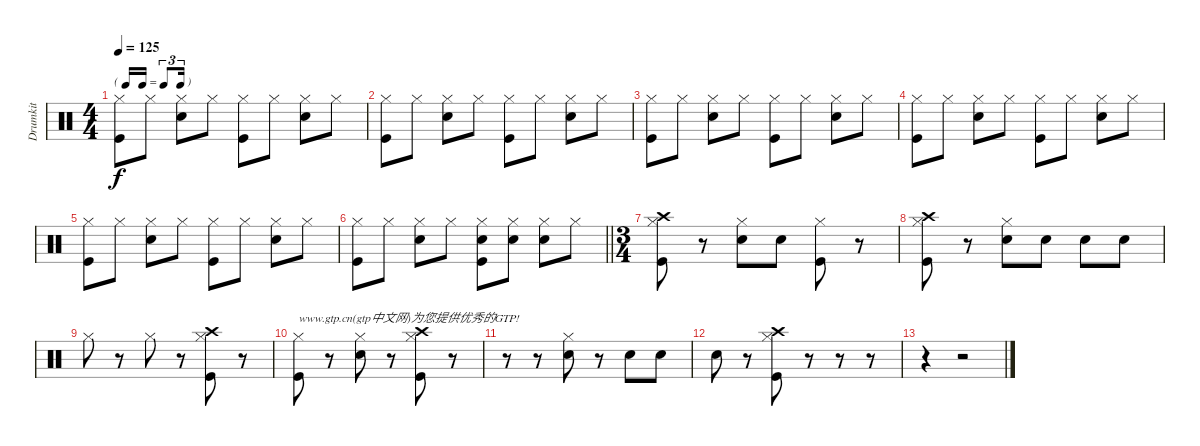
\track ("Drumkit" "Drumkit") {instrument percussion}
\staff {score}
\articulation defaults
\ts (4 4)
\tf triplet16th
\tempo 125
\clef neutral
\ks c
("Kick (hit)" "Hi-Hat (closed)").8{dy f} "Hi-Hat (closed)".8 ("Snare (hit) 2" "Hi-Hat (closed)").8 "Hi-Hat (closed)".8 ("Kick (hit)" "Hi-Hat (closed)").8 "Hi-Hat (closed)".8 ("Snare (hit) 2" "Hi-Hat (closed)").8 "Hi-Hat (closed)".8 |
("Kick (hit)" "Hi-Hat (closed)").8 "Hi-Hat (closed)".8 ("Snare (hit) 2" "Hi-Hat (closed)").8 "Hi-Hat (closed)".8 ("Kick (hit)" "Hi-Hat (closed)").8 "Hi-Hat (closed)".8 ("Snare (hit) 2" "Hi-Hat (closed)").8 "Hi-Hat (closed)".8 |
("Kick (hit)" "Hi-Hat (closed)").8 "Hi-Hat (closed)".8 ("Snare (hit) 2" "Hi-Hat (closed)").8 "Hi-Hat (closed)".8 ("Kick (hit)" "Hi-Hat (closed)").8 "Hi-Hat (closed)".8 ("Snare (hit) 2" "Hi-Hat (closed)").8 "Hi-Hat (closed)".8 |
("Kick (hit)" "Hi-Hat (closed)").8 "Hi-Hat (closed)".8 ("Snare (hit) 2" "Hi-Hat (closed)").8 "Hi-Hat (closed)".8 ("Kick (hit)" "Hi-Hat (closed)").8 "Hi-Hat (closed)".8 ("Snare (hit) 2" "Hi-Hat (closed)").8 "Hi-Hat (closed)".8 |
("Kick (hit)" "Hi-Hat (closed)").8 "Hi-Hat (closed)".8 ("Snare (hit) 2" "Hi-Hat (closed)").8 "Hi-Hat (closed)".8 ("Kick (hit)" "Hi-Hat (closed)").8 "Hi-Hat (closed)".8 ("Snare (hit) 2" "Hi-Hat (closed)").8 "Hi-Hat (closed)".8 |
\barLineRight lightlight
("Kick (hit)" "Hi-Hat (closed)").8 "Hi-Hat (closed)".8 ("Snare (hit) 2" "Hi-Hat (closed)").8 "Hi-Hat (closed)".8 ("Kick (hit)" "Hi-Hat (closed)" "Snare (hit) 2").8 ("Snare (hit) 2" "Hi-Hat (closed)").8 ("Snare (hit) 2" "Hi-Hat (closed)").8 "Hi-Hat (closed)".8 |
\ts (3 4)
("Kick (hit)" "Hi-Hat (closed)" "Crash high (hit)").8 r.8 ("Snare (hit) 2" "Hi-Hat (closed)").8 "Snare (hit) 2".8 ("Kick (hit)" "Hi-Hat (closed)").8 r.8 |
("Kick (hit)" "Hi-Hat (closed)" "Crash high (hit)").8 r.8 ("Snare (hit) 2" "Hi-Hat (closed)").8 "Snare (hit) 2".8 "Snare (hit) 2".8 "Snare (hit) 2".8 |
"Hi-Hat (closed)".8 r.8 "Hi-Hat (closed)".8 r.8 ("Kick (hit)" "Hi-Hat (closed)" "Crash high (hit)").8 r.8 |
("Kick (hit)" "Hi-Hat (closed)").8{txt "www.gtp.cn(gtp中文网)为您提供优秀的GTP!"} r.8 ("Snare (hit) 2" "Hi-Hat (closed)").8 r.8 ("Kick (hit)" "Hi-Hat (closed)" "Crash high (hit)").8 r.8 |
r.8 r.8 ("Snare (hit) 2" "Hi-Hat (closed)").8 r.8 "Snare (hit) 2".8 "Snare (hit) 2".8 |
"Snare (hit) 2".8 r.8 ("Kick (hit)" "Hi-Hat (closed)" "Crash high (hit)").8 r.8 r.8 r.8 |
r.4 r.2
